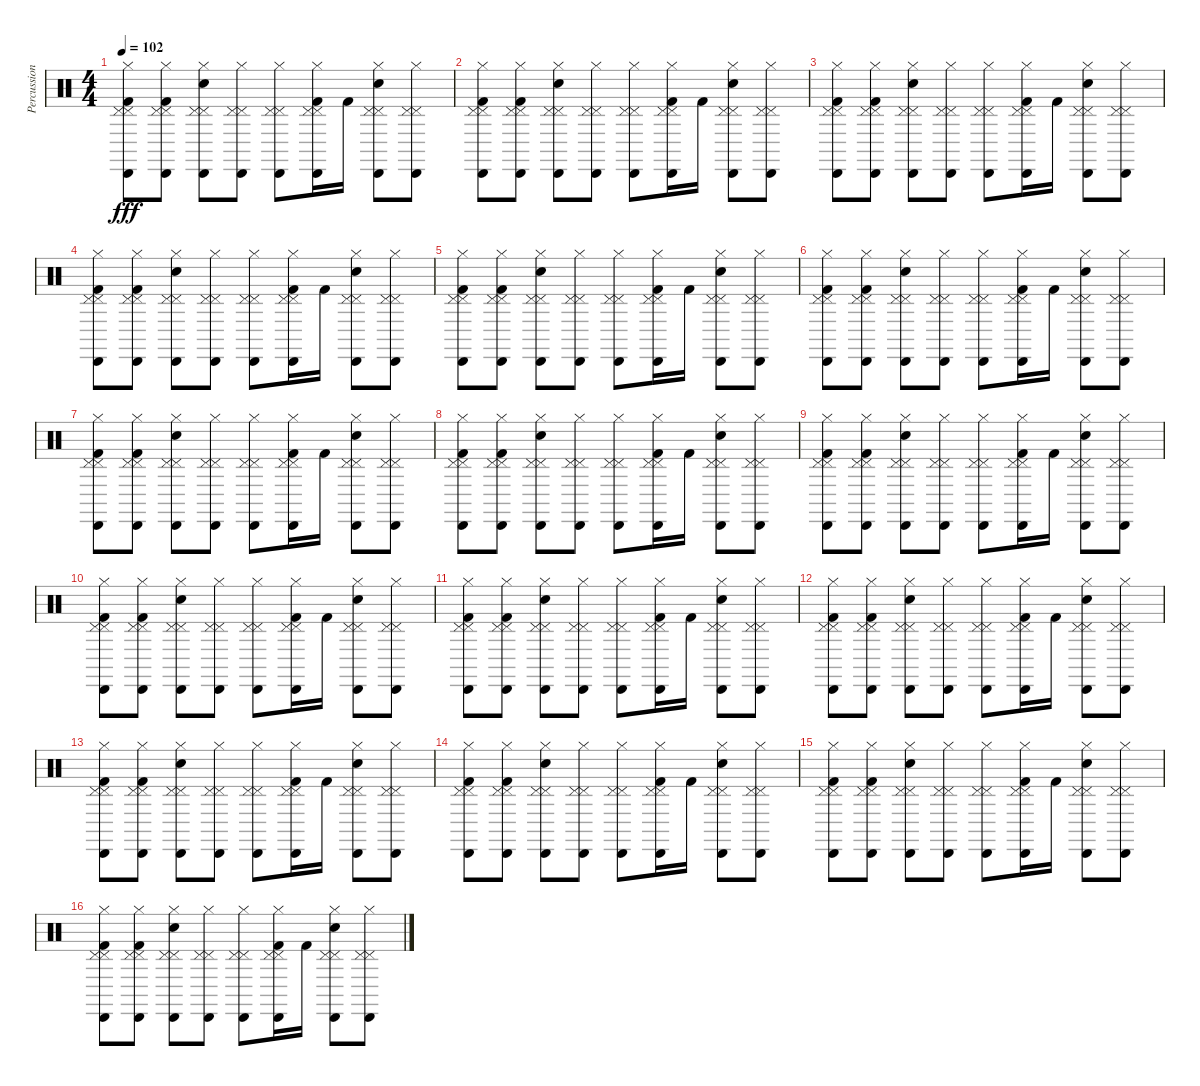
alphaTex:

\track ("Percussion" "Percussion") {instrument percussion}
\staff {score}
\articulation defaults
\ts (4 4)
\tempo 102
\clef neutral
\ks c
("Hi-Hat (closed)" "Kick (hit) 2" "Cabasa (hit)" "Pedal Hi-Hat (hit)" "Pedal Hi-Hat (hit)").8{dy fff} ("Hi-Hat (closed)" "Kick (hit) 2" "Cabasa (hit)" "Pedal Hi-Hat (hit)" "Pedal Hi-Hat (hit)").8 ("Hi-Hat (closed)" "Cabasa (hit)" "Electric Snare (hit)" "Pedal Hi-Hat (hit)" "Pedal Hi-Hat (hit)").8 ("Hi-Hat (closed)" "Cabasa (hit)" "Pedal Hi-Hat (hit)" "Pedal Hi-Hat (hit)").8 ("Hi-Hat (closed)" "Cabasa (hit)" "Pedal Hi-Hat (hit)" "Pedal Hi-Hat (hit)").8 ("Hi-Hat (closed)" "Kick (hit) 2" "Cabasa (hit)" "Pedal Hi-Hat (hit)" "Pedal Hi-Hat (hit)").16 "Kick (hit) 2".16 ("Hi-Hat (closed)" "Cabasa (hit)" "Electric Snare (hit)" "Pedal Hi-Hat (hit)" "Pedal Hi-Hat (hit)").8 ("Hi-Hat (closed)" "Cabasa (hit)" "Pedal Hi-Hat (hit)" "Pedal Hi-Hat (hit)").8 |
("Hi-Hat (closed)" "Kick (hit) 2" "Cabasa (hit)" "Pedal Hi-Hat (hit)" "Pedal Hi-Hat (hit)").8 ("Hi-Hat (closed)" "Kick (hit) 2" "Cabasa (hit)" "Pedal Hi-Hat (hit)" "Pedal Hi-Hat (hit)").8 ("Hi-Hat (closed)" "Cabasa (hit)" "Electric Snare (hit)" "Pedal Hi-Hat (hit)" "Pedal Hi-Hat (hit)").8 ("Hi-Hat (closed)" "Cabasa (hit)" "Pedal Hi-Hat (hit)" "Pedal Hi-Hat (hit)").8 ("Hi-Hat (closed)" "Cabasa (hit)" "Pedal Hi-Hat (hit)" "Pedal Hi-Hat (hit)").8 ("Hi-Hat (closed)" "Kick (hit) 2" "Cabasa (hit)" "Pedal Hi-Hat (hit)" "Pedal Hi-Hat (hit)").16 "Kick (hit) 2".16 ("Hi-Hat (closed)" "Cabasa (hit)" "Electric Snare (hit)" "Pedal Hi-Hat (hit)" "Pedal Hi-Hat (hit)").8 ("Hi-Hat (closed)" "Cabasa (hit)" "Pedal Hi-Hat (hit)" "Pedal Hi-Hat (hit)").8 |
("Hi-Hat (closed)" "Kick (hit) 2" "Cabasa (hit)" "Pedal Hi-Hat (hit)" "Pedal Hi-Hat (hit)").8 ("Hi-Hat (closed)" "Kick (hit) 2" "Cabasa (hit)" "Pedal Hi-Hat (hit)" "Pedal Hi-Hat (hit)").8 ("Hi-Hat (closed)" "Cabasa (hit)" "Electric Snare (hit)" "Pedal Hi-Hat (hit)" "Pedal Hi-Hat (hit)").8 ("Hi-Hat (closed)" "Cabasa (hit)" "Pedal Hi-Hat (hit)" "Pedal Hi-Hat (hit)").8 ("Hi-Hat (closed)" "Cabasa (hit)" "Pedal Hi-Hat (hit)" "Pedal Hi-Hat (hit)").8 ("Hi-Hat (closed)" "Kick (hit) 2" "Cabasa (hit)" "Pedal Hi-Hat (hit)" "Pedal Hi-Hat (hit)").16 "Kick (hit) 2".16 ("Hi-Hat (closed)" "Cabasa (hit)" "Electric Snare (hit)" "Pedal Hi-Hat (hit)" "Pedal Hi-Hat (hit)").8 ("Hi-Hat (closed)" "Cabasa (hit)" "Pedal Hi-Hat (hit)" "Pedal Hi-Hat (hit)").8 |
("Hi-Hat (closed)" "Kick (hit) 2" "Cabasa (hit)" "Pedal Hi-Hat (hit)" "Pedal Hi-Hat (hit)").8 ("Hi-Hat (closed)" "Kick (hit) 2" "Cabasa (hit)" "Pedal Hi-Hat (hit)" "Pedal Hi-Hat (hit)").8 ("Hi-Hat (closed)" "Cabasa (hit)" "Electric Snare (hit)" "Pedal Hi-Hat (hit)" "Pedal Hi-Hat (hit)").8 ("Hi-Hat (closed)" "Cabasa (hit)" "Pedal Hi-Hat (hit)" "Pedal Hi-Hat (hit)").8 ("Hi-Hat (closed)" "Cabasa (hit)" "Pedal Hi-Hat (hit)" "Pedal Hi-Hat (hit)").8 ("Hi-Hat (closed)" "Kick (hit) 2" "Cabasa (hit)" "Pedal Hi-Hat (hit)" "Pedal Hi-Hat (hit)").16 "Kick (hit) 2".16 ("Hi-Hat (closed)" "Cabasa (hit)" "Electric Snare (hit)" "Pedal Hi-Hat (hit)" "Pedal Hi-Hat (hit)").8 ("Hi-Hat (closed)" "Cabasa (hit)" "Pedal Hi-Hat (hit)" "Pedal Hi-Hat (hit)").8 |
("Hi-Hat (closed)" "Kick (hit) 2" "Cabasa (hit)" "Pedal Hi-Hat (hit)" "Pedal Hi-Hat (hit)").8 ("Hi-Hat (closed)" "Kick (hit) 2" "Cabasa (hit)" "Pedal Hi-Hat (hit)" "Pedal Hi-Hat (hit)").8 ("Hi-Hat (closed)" "Cabasa (hit)" "Electric Snare (hit)" "Pedal Hi-Hat (hit)" "Pedal Hi-Hat (hit)").8 ("Hi-Hat (closed)" "Cabasa (hit)" "Pedal Hi-Hat (hit)" "Pedal Hi-Hat (hit)").8 ("Hi-Hat (closed)" "Cabasa (hit)" "Pedal Hi-Hat (hit)" "Pedal Hi-Hat (hit)").8 ("Hi-Hat (closed)" "Kick (hit) 2" "Cabasa (hit)" "Pedal Hi-Hat (hit)" "Pedal Hi-Hat (hit)").16 "Kick (hit) 2".16 ("Hi-Hat (closed)" "Cabasa (hit)" "Electric Snare (hit)" "Pedal Hi-Hat (hit)" "Pedal Hi-Hat (hit)").8 ("Hi-Hat (closed)" "Cabasa (hit)" "Pedal Hi-Hat (hit)" "Pedal Hi-Hat (hit)").8 |
("Hi-Hat (closed)" "Kick (hit) 2" "Cabasa (hit)" "Pedal Hi-Hat (hit)" "Pedal Hi-Hat (hit)").8 ("Hi-Hat (closed)" "Kick (hit) 2" "Cabasa (hit)" "Pedal Hi-Hat (hit)" "Pedal Hi-Hat (hit)").8 ("Hi-Hat (closed)" "Cabasa (hit)" "Electric Snare (hit)" "Pedal Hi-Hat (hit)" "Pedal Hi-Hat (hit)").8 ("Hi-Hat (closed)" "Cabasa (hit)" "Pedal Hi-Hat (hit)" "Pedal Hi-Hat (hit)").8 ("Hi-Hat (closed)" "Cabasa (hit)" "Pedal Hi-Hat (hit)" "Pedal Hi-Hat (hit)").8 ("Hi-Hat (closed)" "Kick (hit) 2" "Cabasa (hit)" "Pedal Hi-Hat (hit)" "Pedal Hi-Hat (hit)").16 "Kick (hit) 2".16 ("Hi-Hat (closed)" "Cabasa (hit)" "Electric Snare (hit)" "Pedal Hi-Hat (hit)" "Pedal Hi-Hat (hit)").8 ("Hi-Hat (closed)" "Cabasa (hit)" "Pedal Hi-Hat (hit)" "Pedal Hi-Hat (hit)").8 |
("Hi-Hat (closed)" "Kick (hit) 2" "Cabasa (hit)" "Pedal Hi-Hat (hit)" "Pedal Hi-Hat (hit)").8 ("Hi-Hat (closed)" "Kick (hit) 2" "Cabasa (hit)" "Pedal Hi-Hat (hit)" "Pedal Hi-Hat (hit)").8 ("Hi-Hat (closed)" "Cabasa (hit)" "Electric Snare (hit)" "Pedal Hi-Hat (hit)" "Pedal Hi-Hat (hit)").8 ("Hi-Hat (closed)" "Cabasa (hit)" "Pedal Hi-Hat (hit)" "Pedal Hi-Hat (hit)").8 ("Hi-Hat (closed)" "Cabasa (hit)" "Pedal Hi-Hat (hit)" "Pedal Hi-Hat (hit)").8 ("Hi-Hat (closed)" "Kick (hit) 2" "Cabasa (hit)" "Pedal Hi-Hat (hit)" "Pedal Hi-Hat (hit)").16 "Kick (hit) 2".16 ("Hi-Hat (closed)" "Cabasa (hit)" "Electric Snare (hit)" "Pedal Hi-Hat (hit)" "Pedal Hi-Hat (hit)").8 ("Hi-Hat (closed)" "Cabasa (hit)" "Pedal Hi-Hat (hit)" "Pedal Hi-Hat (hit)").8 |
("Hi-Hat (closed)" "Kick (hit) 2" "Cabasa (hit)" "Pedal Hi-Hat (hit)" "Pedal Hi-Hat (hit)").8 ("Hi-Hat (closed)" "Kick (hit) 2" "Cabasa (hit)" "Pedal Hi-Hat (hit)" "Pedal Hi-Hat (hit)").8 ("Hi-Hat (closed)" "Cabasa (hit)" "Electric Snare (hit)" "Pedal Hi-Hat (hit)" "Pedal Hi-Hat (hit)").8 ("Hi-Hat (closed)" "Cabasa (hit)" "Pedal Hi-Hat (hit)" "Pedal Hi-Hat (hit)").8 ("Hi-Hat (closed)" "Cabasa (hit)" "Pedal Hi-Hat (hit)" "Pedal Hi-Hat (hit)").8 ("Hi-Hat (closed)" "Kick (hit) 2" "Cabasa (hit)" "Pedal Hi-Hat (hit)" "Pedal Hi-Hat (hit)").16 "Kick (hit) 2".16 ("Hi-Hat (closed)" "Cabasa (hit)" "Electric Snare (hit)" "Pedal Hi-Hat (hit)" "Pedal Hi-Hat (hit)").8 ("Hi-Hat (closed)" "Cabasa (hit)" "Pedal Hi-Hat (hit)" "Pedal Hi-Hat (hit)").8 |
("Hi-Hat (closed)" "Kick (hit) 2" "Cabasa (hit)" "Pedal Hi-Hat (hit)" "Pedal Hi-Hat (hit)").8 ("Hi-Hat (closed)" "Kick (hit) 2" "Cabasa (hit)" "Pedal Hi-Hat (hit)" "Pedal Hi-Hat (hit)").8 ("Hi-Hat (closed)" "Cabasa (hit)" "Electric Snare (hit)" "Pedal Hi-Hat (hit)" "Pedal Hi-Hat (hit)").8 ("Hi-Hat (closed)" "Cabasa (hit)" "Pedal Hi-Hat (hit)" "Pedal Hi-Hat (hit)").8 ("Hi-Hat (closed)" "Cabasa (hit)" "Pedal Hi-Hat (hit)" "Pedal Hi-Hat (hit)").8 ("Hi-Hat (closed)" "Kick (hit) 2" "Cabasa (hit)" "Pedal Hi-Hat (hit)" "Pedal Hi-Hat (hit)").16 "Kick (hit) 2".16 ("Hi-Hat (closed)" "Cabasa (hit)" "Electric Snare (hit)" "Pedal Hi-Hat (hit)" "Pedal Hi-Hat (hit)").8 ("Hi-Hat (closed)" "Cabasa (hit)" "Pedal Hi-Hat (hit)" "Pedal Hi-Hat (hit)").8 |
("Hi-Hat (closed)" "Kick (hit) 2" "Cabasa (hit)" "Pedal Hi-Hat (hit)" "Pedal Hi-Hat (hit)").8 ("Hi-Hat (closed)" "Kick (hit) 2" "Cabasa (hit)" "Pedal Hi-Hat (hit)" "Pedal Hi-Hat (hit)").8 ("Hi-Hat (closed)" "Cabasa (hit)" "Electric Snare (hit)" "Pedal Hi-Hat (hit)" "Pedal Hi-Hat (hit)").8 ("Hi-Hat (closed)" "Cabasa (hit)" "Pedal Hi-Hat (hit)" "Pedal Hi-Hat (hit)").8 ("Hi-Hat (closed)" "Cabasa (hit)" "Pedal Hi-Hat (hit)" "Pedal Hi-Hat (hit)").8 ("Hi-Hat (closed)" "Kick (hit) 2" "Cabasa (hit)" "Pedal Hi-Hat (hit)" "Pedal Hi-Hat (hit)").16 "Kick (hit) 2".16 ("Hi-Hat (closed)" "Cabasa (hit)" "Electric Snare (hit)" "Pedal Hi-Hat (hit)" "Pedal Hi-Hat (hit)").8 ("Hi-Hat (closed)" "Cabasa (hit)" "Pedal Hi-Hat (hit)" "Pedal Hi-Hat (hit)").8 |
("Hi-Hat (closed)" "Kick (hit) 2" "Cabasa (hit)" "Pedal Hi-Hat (hit)" "Pedal Hi-Hat (hit)").8 ("Hi-Hat (closed)" "Kick (hit) 2" "Cabasa (hit)" "Pedal Hi-Hat (hit)" "Pedal Hi-Hat (hit)").8 ("Hi-Hat (closed)" "Cabasa (hit)" "Electric Snare (hit)" "Pedal Hi-Hat (hit)" "Pedal Hi-Hat (hit)").8 ("Hi-Hat (closed)" "Cabasa (hit)" "Pedal Hi-Hat (hit)" "Pedal Hi-Hat (hit)").8 ("Hi-Hat (closed)" "Cabasa (hit)" "Pedal Hi-Hat (hit)" "Pedal Hi-Hat (hit)").8 ("Hi-Hat (closed)" "Kick (hit) 2" "Cabasa (hit)" "Pedal Hi-Hat (hit)" "Pedal Hi-Hat (hit)").16 "Kick (hit) 2".16 ("Hi-Hat (closed)" "Cabasa (hit)" "Electric Snare (hit)" "Pedal Hi-Hat (hit)" "Pedal Hi-Hat (hit)").8 ("Hi-Hat (closed)" "Cabasa (hit)" "Pedal Hi-Hat (hit)" "Pedal Hi-Hat (hit)").8 |
("Hi-Hat (closed)" "Kick (hit) 2" "Cabasa (hit)" "Pedal Hi-Hat (hit)" "Pedal Hi-Hat (hit)").8 ("Hi-Hat (closed)" "Kick (hit) 2" "Cabasa (hit)" "Pedal Hi-Hat (hit)" "Pedal Hi-Hat (hit)").8 ("Hi-Hat (closed)" "Cabasa (hit)" "Electric Snare (hit)" "Pedal Hi-Hat (hit)" "Pedal Hi-Hat (hit)").8 ("Hi-Hat (closed)" "Cabasa (hit)" "Pedal Hi-Hat (hit)" "Pedal Hi-Hat (hit)").8 ("Hi-Hat (closed)" "Cabasa (hit)" "Pedal Hi-Hat (hit)" "Pedal Hi-Hat (hit)").8 ("Hi-Hat (closed)" "Kick (hit) 2" "Cabasa (hit)" "Pedal Hi-Hat (hit)" "Pedal Hi-Hat (hit)").16 "Kick (hit) 2".16 ("Hi-Hat (closed)" "Cabasa (hit)" "Electric Snare (hit)" "Pedal Hi-Hat (hit)" "Pedal Hi-Hat (hit)").8 ("Hi-Hat (closed)" "Cabasa (hit)" "Pedal Hi-Hat (hit)" "Pedal Hi-Hat (hit)").8 |
("Hi-Hat (closed)" "Kick (hit) 2" "Cabasa (hit)" "Pedal Hi-Hat (hit)" "Pedal Hi-Hat (hit)").8 ("Hi-Hat (closed)" "Kick (hit) 2" "Cabasa (hit)" "Pedal Hi-Hat (hit)" "Pedal Hi-Hat (hit)").8 ("Hi-Hat (closed)" "Cabasa (hit)" "Electric Snare (hit)" "Pedal Hi-Hat (hit)" "Pedal Hi-Hat (hit)").8 ("Hi-Hat (closed)" "Cabasa (hit)" "Pedal Hi-Hat (hit)" "Pedal Hi-Hat (hit)").8 ("Hi-Hat (closed)" "Cabasa (hit)" "Pedal Hi-Hat (hit)" "Pedal Hi-Hat (hit)").8 ("Hi-Hat (closed)" "Kick (hit) 2" "Cabasa (hit)" "Pedal Hi-Hat (hit)" "Pedal Hi-Hat (hit)").16 "Kick (hit) 2".16 ("Hi-Hat (closed)" "Cabasa (hit)" "Electric Snare (hit)" "Pedal Hi-Hat (hit)" "Pedal Hi-Hat (hit)").8 ("Hi-Hat (closed)" "Cabasa (hit)" "Pedal Hi-Hat (hit)" "Pedal Hi-Hat (hit)").8 |
("Hi-Hat (closed)" "Kick (hit) 2" "Cabasa (hit)" "Pedal Hi-Hat (hit)" "Pedal Hi-Hat (hit)").8 ("Hi-Hat (closed)" "Kick (hit) 2" "Cabasa (hit)" "Pedal Hi-Hat (hit)" "Pedal Hi-Hat (hit)").8 ("Hi-Hat (closed)" "Cabasa (hit)" "Electric Snare (hit)" "Pedal Hi-Hat (hit)" "Pedal Hi-Hat (hit)").8 ("Hi-Hat (closed)" "Cabasa (hit)" "Pedal Hi-Hat (hit)" "Pedal Hi-Hat (hit)").8 ("Hi-Hat (closed)" "Cabasa (hit)" "Pedal Hi-Hat (hit)" "Pedal Hi-Hat (hit)").8 ("Hi-Hat (closed)" "Kick (hit) 2" "Cabasa (hit)" "Pedal Hi-Hat (hit)" "Pedal Hi-Hat (hit)").16 "Kick (hit) 2".16 ("Hi-Hat (closed)" "Cabasa (hit)" "Electric Snare (hit)" "Pedal Hi-Hat (hit)" "Pedal Hi-Hat (hit)").8 ("Hi-Hat (closed)" "Cabasa (hit)" "Pedal Hi-Hat (hit)" "Pedal Hi-Hat (hit)").8 |
("Hi-Hat (closed)" "Kick (hit) 2" "Cabasa (hit)" "Pedal Hi-Hat (hit)" "Pedal Hi-Hat (hit)").8 ("Hi-Hat (closed)" "Kick (hit) 2" "Cabasa (hit)" "Pedal Hi-Hat (hit)" "Pedal Hi-Hat (hit)").8 ("Hi-Hat (closed)" "Cabasa (hit)" "Electric Snare (hit)" "Pedal Hi-Hat (hit)" "Pedal Hi-Hat (hit)").8 ("Hi-Hat (closed)" "Cabasa (hit)" "Pedal Hi-Hat (hit)" "Pedal Hi-Hat (hit)").8 ("Hi-Hat (closed)" "Cabasa (hit)" "Pedal Hi-Hat (hit)" "Pedal Hi-Hat (hit)").8 ("Hi-Hat (closed)" "Kick (hit) 2" "Cabasa (hit)" "Pedal Hi-Hat (hit)" "Pedal Hi-Hat (hit)").16 "Kick (hit) 2".16 ("Hi-Hat (closed)" "Cabasa (hit)" "Electric Snare (hit)" "Pedal Hi-Hat (hit)" "Pedal Hi-Hat (hit)").8 ("Hi-Hat (closed)" "Cabasa (hit)" "Pedal Hi-Hat (hit)" "Pedal Hi-Hat (hit)").8 |
("Hi-Hat (closed)" "Kick (hit) 2" "Cabasa (hit)" "Pedal Hi-Hat (hit)" "Pedal Hi-Hat (hit)").8 ("Hi-Hat (closed)" "Kick (hit) 2" "Cabasa (hit)" "Pedal Hi-Hat (hit)" "Pedal Hi-Hat (hit)").8 ("Hi-Hat (closed)" "Cabasa (hit)" "Electric Snare (hit)" "Pedal Hi-Hat (hit)" "Pedal Hi-Hat (hit)").8 ("Hi-Hat (closed)" "Cabasa (hit)" "Pedal Hi-Hat (hit)" "Pedal Hi-Hat (hit)").8 ("Hi-Hat (closed)" "Cabasa (hit)" "Pedal Hi-Hat (hit)" "Pedal Hi-Hat (hit)").8 ("Hi-Hat (closed)" "Kick (hit) 2" "Cabasa (hit)" "Pedal Hi-Hat (hit)" "Pedal Hi-Hat (hit)").16 "Kick (hit) 2".16 ("Hi-Hat (closed)" "Cabasa (hit)" "Electric Snare (hit)" "Pedal Hi-Hat (hit)" "Pedal Hi-Hat (hit)").8 ("Hi-Hat (closed)" "Cabasa (hit)" "Pedal Hi-Hat (hit)" "Pedal Hi-Hat (hit)").8
